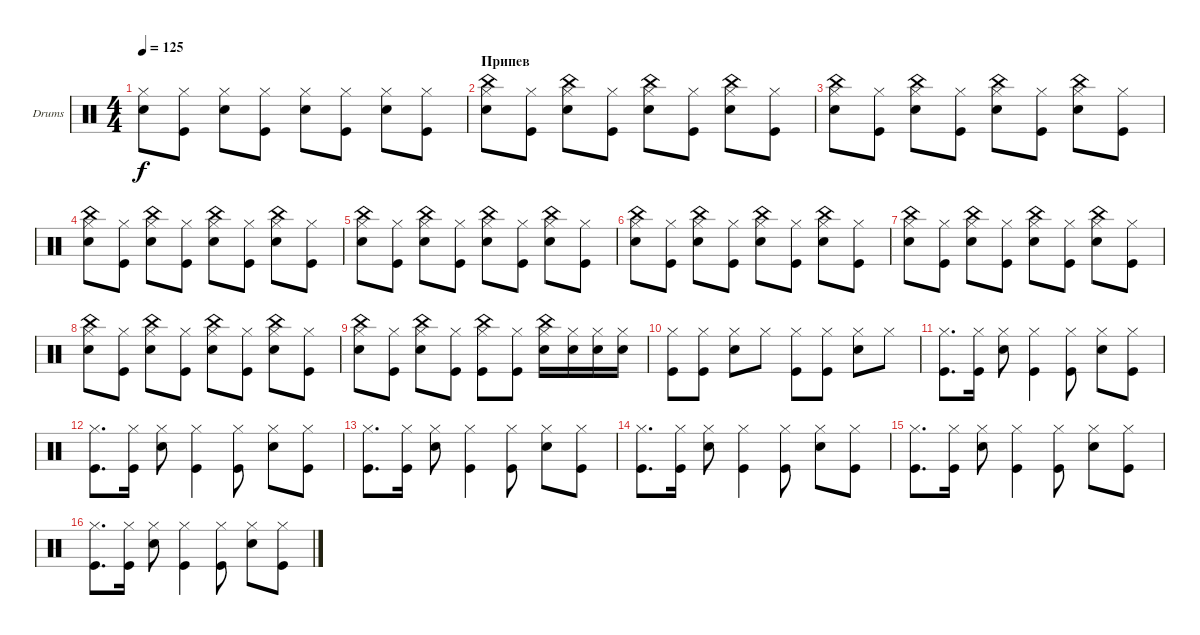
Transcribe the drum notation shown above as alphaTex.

\defaultSystemsLayout 4
\bracketExtendMode groupsimilarinstruments
\firstSystemTrackNameOrientation horizontal
\otherSystemsTrackNameOrientation horizontal
\track ("Drumkit" "Drums") {instrument percussion}
\staff {score}
\articulation defaults
\ts (4 4)
\tempo 125
\clef neutral
\ks c
("Snare (hit) 2" "Hi-Hat (closed)").8{dy f} ("Kick (hit)" "Hi-Hat (closed)").8 ("Snare (hit) 2" "Hi-Hat (closed)").8 ("Kick (hit)" "Hi-Hat (closed)").8 ("Snare (hit) 2" "Hi-Hat (closed)").8 ("Kick (hit)" "Hi-Hat (closed)").8 ("Snare (hit) 2" "Hi-Hat (closed)").8 ("Kick (hit)" "Hi-Hat (closed)").8 |
\section ("" "Припев")
("Snare (hit) 2" "Hi-Hat (closed)" "China (hit)").8 ("Kick (hit)" "Hi-Hat (closed)").8 ("Snare (hit) 2" "Hi-Hat (closed)" "China (hit)").8 ("Kick (hit)" "Hi-Hat (closed)").8 ("Snare (hit) 2" "Hi-Hat (closed)" "China (hit)").8 ("Kick (hit)" "Hi-Hat (closed)").8 ("Snare (hit) 2" "Hi-Hat (closed)" "China (hit)").8 ("Kick (hit)" "Hi-Hat (closed)").8 |
("Snare (hit) 2" "Hi-Hat (closed)" "China (hit)").8 ("Kick (hit)" "Hi-Hat (closed)").8 ("Snare (hit) 2" "Hi-Hat (closed)" "China (hit)").8 ("Kick (hit)" "Hi-Hat (closed)").8 ("Snare (hit) 2" "Hi-Hat (closed)" "China (hit)").8 ("Kick (hit)" "Hi-Hat (closed)").8 ("Snare (hit) 2" "Hi-Hat (closed)" "China (hit)").8 ("Kick (hit)" "Hi-Hat (closed)").8 |
("Snare (hit) 2" "Hi-Hat (closed)" "China (hit)").8 ("Kick (hit)" "Hi-Hat (closed)").8 ("Snare (hit) 2" "Hi-Hat (closed)" "China (hit)").8 ("Kick (hit)" "Hi-Hat (closed)").8 ("Snare (hit) 2" "Hi-Hat (closed)" "China (hit)").8 ("Kick (hit)" "Hi-Hat (closed)").8 ("Snare (hit) 2" "Hi-Hat (closed)" "China (hit)").8 ("Kick (hit)" "Hi-Hat (closed)").8 |
("Snare (hit) 2" "Hi-Hat (closed)" "China (hit)").8 ("Kick (hit)" "Hi-Hat (closed)").8 ("Snare (hit) 2" "Hi-Hat (closed)" "China (hit)").8 ("Kick (hit)" "Hi-Hat (closed)").8 ("Snare (hit) 2" "Hi-Hat (closed)" "China (hit)").8 ("Kick (hit)" "Hi-Hat (closed)").8 ("Snare (hit) 2" "Hi-Hat (closed)" "China (hit)").8 ("Kick (hit)" "Hi-Hat (closed)").8 |
("Snare (hit) 2" "Hi-Hat (closed)" "China (hit)").8 ("Kick (hit)" "Hi-Hat (closed)").8 ("Snare (hit) 2" "Hi-Hat (closed)" "China (hit)").8 ("Kick (hit)" "Hi-Hat (closed)").8 ("Snare (hit) 2" "Hi-Hat (closed)" "China (hit)").8 ("Kick (hit)" "Hi-Hat (closed)").8 ("Snare (hit) 2" "Hi-Hat (closed)" "China (hit)").8 ("Kick (hit)" "Hi-Hat (closed)").8 |
("Snare (hit) 2" "Hi-Hat (closed)" "China (hit)").8 ("Kick (hit)" "Hi-Hat (closed)").8 ("Snare (hit) 2" "Hi-Hat (closed)" "China (hit)").8 ("Kick (hit)" "Hi-Hat (closed)").8 ("Snare (hit) 2" "Hi-Hat (closed)" "China (hit)").8 ("Kick (hit)" "Hi-Hat (closed)").8 ("Snare (hit) 2" "Hi-Hat (closed)" "China (hit)").8 ("Kick (hit)" "Hi-Hat (closed)").8 |
("Snare (hit) 2" "Hi-Hat (closed)" "China (hit)").8 ("Kick (hit)" "Hi-Hat (closed)").8 ("Snare (hit) 2" "Hi-Hat (closed)" "China (hit)").8 ("Kick (hit)" "Hi-Hat (closed)").8 ("Snare (hit) 2" "Hi-Hat (closed)" "China (hit)").8 ("Kick (hit)" "Hi-Hat (closed)").8 ("Snare (hit) 2" "Hi-Hat (closed)" "China (hit)").8 ("Kick (hit)" "Hi-Hat (closed)").8 |
("Snare (hit) 2" "Hi-Hat (closed)" "China (hit)").8 ("Kick (hit)" "Hi-Hat (closed)").8 ("Snare (hit) 2" "Hi-Hat (closed)" "China (hit)").8 ("Kick (hit)" "Hi-Hat (closed)").8 ("Hi-Hat (closed)" "China (hit)" "Kick (hit)").8 ("Kick (hit)" "Hi-Hat (closed)").8 ("Snare (hit) 2" "Hi-Hat (closed)" "China (hit)").16 ("Hi-Hat (closed)" "Snare (hit) 2").16 ("Snare (hit) 2" "Hi-Hat (closed)").16 ("Snare (hit) 2" "Hi-Hat (closed)").16 |
("Kick (hit)" "Hi-Hat (closed)").8 ("Kick (hit)" "Hi-Hat (closed)").8 ("Snare (hit) 2" "Hi-Hat (closed)").8 "Hi-Hat (closed)".8 ("Kick (hit)" "Hi-Hat (closed)").8 ("Kick (hit)" "Hi-Hat (closed)").8 ("Snare (hit) 2" "Hi-Hat (closed)").8 "Hi-Hat (closed)".8 |
("Kick (hit)" "Hi-Hat (closed)").8{d} ("Kick (hit)" "Hi-Hat (closed)").16 ("Snare (hit) 2" "Hi-Hat (closed)").8 ("Kick (hit)" "Hi-Hat (closed)").4 ("Kick (hit)" "Hi-Hat (closed)").8 ("Snare (hit) 2" "Hi-Hat (closed)").8 ("Kick (hit)" "Hi-Hat (closed)").8 |
("Kick (hit)" "Hi-Hat (closed)").8{d} ("Kick (hit)" "Hi-Hat (closed)").16 ("Snare (hit) 2" "Hi-Hat (closed)").8 ("Kick (hit)" "Hi-Hat (closed)").4 ("Kick (hit)" "Hi-Hat (closed)").8 ("Snare (hit) 2" "Hi-Hat (closed)").8 ("Kick (hit)" "Hi-Hat (closed)").8 |
("Kick (hit)" "Hi-Hat (closed)").8{d} ("Kick (hit)" "Hi-Hat (closed)").16 ("Snare (hit) 2" "Hi-Hat (closed)").8 ("Kick (hit)" "Hi-Hat (closed)").4 ("Kick (hit)" "Hi-Hat (closed)").8 ("Snare (hit) 2" "Hi-Hat (closed)").8 ("Kick (hit)" "Hi-Hat (closed)").8 |
("Kick (hit)" "Hi-Hat (closed)").8{d} ("Kick (hit)" "Hi-Hat (closed)").16 ("Snare (hit) 2" "Hi-Hat (closed)").8 ("Kick (hit)" "Hi-Hat (closed)").4 ("Kick (hit)" "Hi-Hat (closed)").8 ("Snare (hit) 2" "Hi-Hat (closed)").8 ("Kick (hit)" "Hi-Hat (closed)").8 |
("Kick (hit)" "Hi-Hat (closed)").8{d} ("Kick (hit)" "Hi-Hat (closed)").16 ("Snare (hit) 2" "Hi-Hat (closed)").8 ("Kick (hit)" "Hi-Hat (closed)").4 ("Kick (hit)" "Hi-Hat (closed)").8 ("Snare (hit) 2" "Hi-Hat (closed)").8 ("Kick (hit)" "Hi-Hat (closed)").8 |
("Kick (hit)" "Hi-Hat (closed)").8{d} ("Kick (hit)" "Hi-Hat (closed)").16 ("Snare (hit) 2" "Hi-Hat (closed)").8 ("Kick (hit)" "Hi-Hat (closed)").4 ("Kick (hit)" "Hi-Hat (closed)").8 ("Snare (hit) 2" "Hi-Hat (closed)").8 ("Kick (hit)" "Hi-Hat (closed)").8
